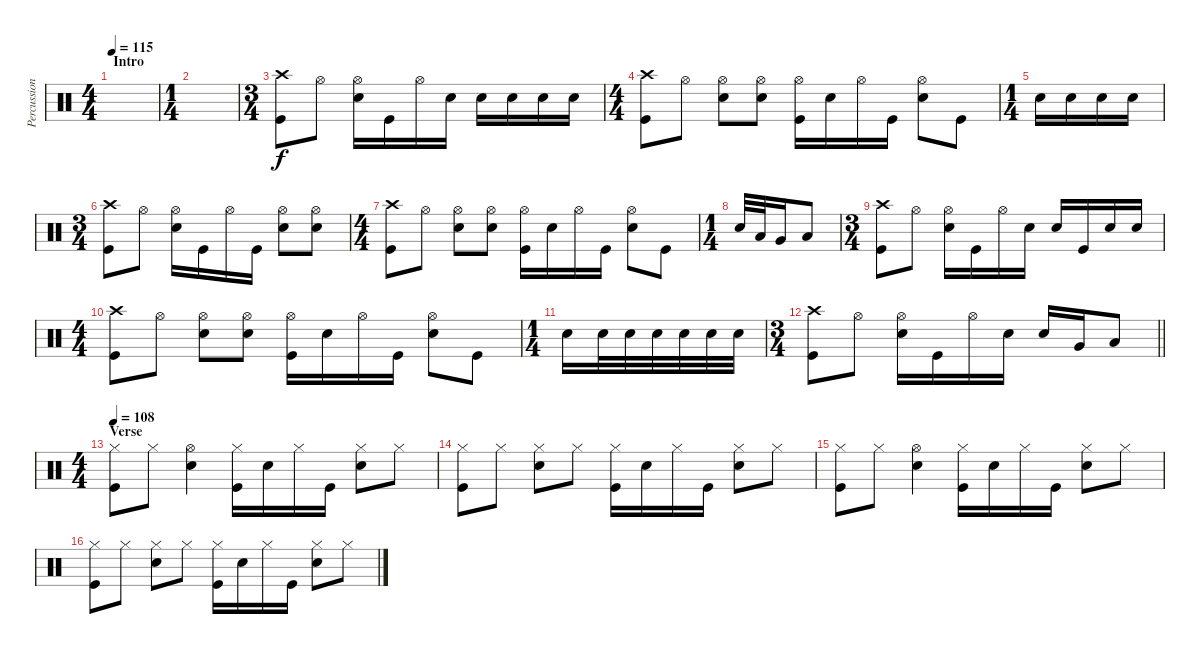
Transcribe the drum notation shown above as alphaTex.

\track ("Percussion" "Percussion") {instrument percussion}
\staff {score}
\articulation defaults
\ts (4 4)
\section ("" "Intro")
\tempo 115
\clef neutral
\ks c
|
\ts (1 4)
|
\ts (3 4)
("Crash high (hit)" "Kick (hit)").8 "Hi-Hat (open)".8 ("Hi-Hat (open)" "Electric Snare (hit)").16 "Kick (hit)".16 "Hi-Hat (open)".16 "Electric Snare (hit)".16 "Electric Snare (hit)".16 "Electric Snare (hit)".16 "Electric Snare (hit)".16 "Electric Snare (hit)".16 |
\ts (4 4)
("Crash high (hit)" "Kick (hit)").8 "Hi-Hat (open)".8 ("Hi-Hat (open)" "Electric Snare (hit)").8 ("Hi-Hat (open)" "Electric Snare (hit)").8 ("Hi-Hat (open)" "Kick (hit)").16 "Electric Snare (hit)".16 "Hi-Hat (open)".16 "Kick (hit)".16 ("Hi-Hat (open)" "Electric Snare (hit)").8 "Kick (hit)".8 |
\ts (1 4)
"Electric Snare (hit)".16 "Electric Snare (hit)".16 "Electric Snare (hit)".16 "Electric Snare (hit)".16 |
\ts (3 4)
("Crash high (hit)" "Kick (hit)").8 "Hi-Hat (open)".8 ("Hi-Hat (open)" "Electric Snare (hit)").16 "Kick (hit)".16 "Hi-Hat (open)".16 "Kick (hit)".16 ("Hi-Hat (open)" "Electric Snare (hit)").8 ("Hi-Hat (open)" "Electric Snare (hit)").8 |
\ts (4 4)
("Crash high (hit)" "Kick (hit)").8 "Hi-Hat (open)".8 ("Hi-Hat (open)" "Electric Snare (hit)").8 ("Hi-Hat (open)" "Electric Snare (hit)").8 ("Hi-Hat (open)" "Kick (hit)").16 "Electric Snare (hit)".16 "Hi-Hat (open)".16 "Kick (hit)".16 ("Hi-Hat (open)" "Electric Snare (hit)").8 "Kick (hit)".8 |
\ts (1 4)
"Electric Snare (hit)".32 "Low Tom (hit)".32 "Very Low Tom (hit)".16 "Low Floor Tom (hit)".8 |
\ts (3 4)
("Crash high (hit)" "Kick (hit)").8 "Hi-Hat (open)".8 ("Hi-Hat (open)" "Electric Snare (hit)").16 "Kick (hit)".16 "Hi-Hat (open)".16 "Electric Snare (hit)".16 "Electric Snare (hit)".16 "Kick (hit)".16 "Electric Snare (hit)".16 "Electric Snare (hit)".16 |
\ts (4 4)
("Crash high (hit)" "Kick (hit)").8 "Hi-Hat (open)".8 ("Hi-Hat (open)" "Electric Snare (hit)").8 ("Hi-Hat (open)" "Electric Snare (hit)").8 ("Hi-Hat (open)" "Kick (hit)").16 "Electric Snare (hit)".16 "Hi-Hat (open)".16 "Kick (hit)".16 ("Hi-Hat (open)" "Electric Snare (hit)").8 "Kick (hit)".8 |
\ts (1 4)
"Electric Snare (hit)".16 "Electric Snare (hit)".32 "Electric Snare (hit)".32 "Electric Snare (hit)".32 "Electric Snare (hit)".32 "Electric Snare (hit)".32 "Electric Snare (hit)".32 |
\ts (3 4)
\barLineRight lightlight
("Crash high (hit)" "Kick (hit)").8 "Hi-Hat (open)".8 ("Hi-Hat (open)" "Electric Snare (hit)").16 "Kick (hit)".16 "Hi-Hat (open)".16 "Electric Snare (hit)".16 "Electric Snare (hit)".16 "Very Low Tom (hit)".16 "Low Floor Tom (hit)".8 |
\ts (4 4)
\section ("" "Verse")
\tempo 108
("Hi-Hat (closed)" "Kick (hit)").8 "Hi-Hat (closed)".8 ("Hi-Hat (open)" "Electric Snare (hit)").4 ("Hi-Hat (closed)" "Kick (hit)").16 "Electric Snare (hit)".16 "Hi-Hat (closed)".16 "Kick (hit)".16 ("Hi-Hat (closed)" "Electric Snare (hit)").8 "Hi-Hat (closed)".8 |
("Hi-Hat (closed)" "Kick (hit)").8 "Hi-Hat (closed)".8 ("Hi-Hat (closed)" "Electric Snare (hit)").8 "Hi-Hat (closed)".8 ("Hi-Hat (closed)" "Kick (hit)").16 "Electric Snare (hit)".16 "Hi-Hat (closed)".16 "Kick (hit)".16 ("Hi-Hat (closed)" "Electric Snare (hit)").8 "Hi-Hat (closed)".8 |
("Hi-Hat (closed)" "Kick (hit)").8 "Hi-Hat (closed)".8 ("Hi-Hat (open)" "Electric Snare (hit)").4 ("Hi-Hat (closed)" "Kick (hit)").16 "Electric Snare (hit)".16 "Hi-Hat (closed)".16 "Kick (hit)".16 ("Hi-Hat (closed)" "Electric Snare (hit)").8 "Hi-Hat (closed)".8 |
("Hi-Hat (closed)" "Kick (hit)").8 "Hi-Hat (closed)".8 ("Hi-Hat (closed)" "Electric Snare (hit)").8 "Hi-Hat (closed)".8 ("Hi-Hat (closed)" "Kick (hit)").16 "Electric Snare (hit)".16 "Hi-Hat (closed)".16 "Kick (hit)".16 ("Hi-Hat (closed)" "Electric Snare (hit)").8 "Hi-Hat (closed)".8
